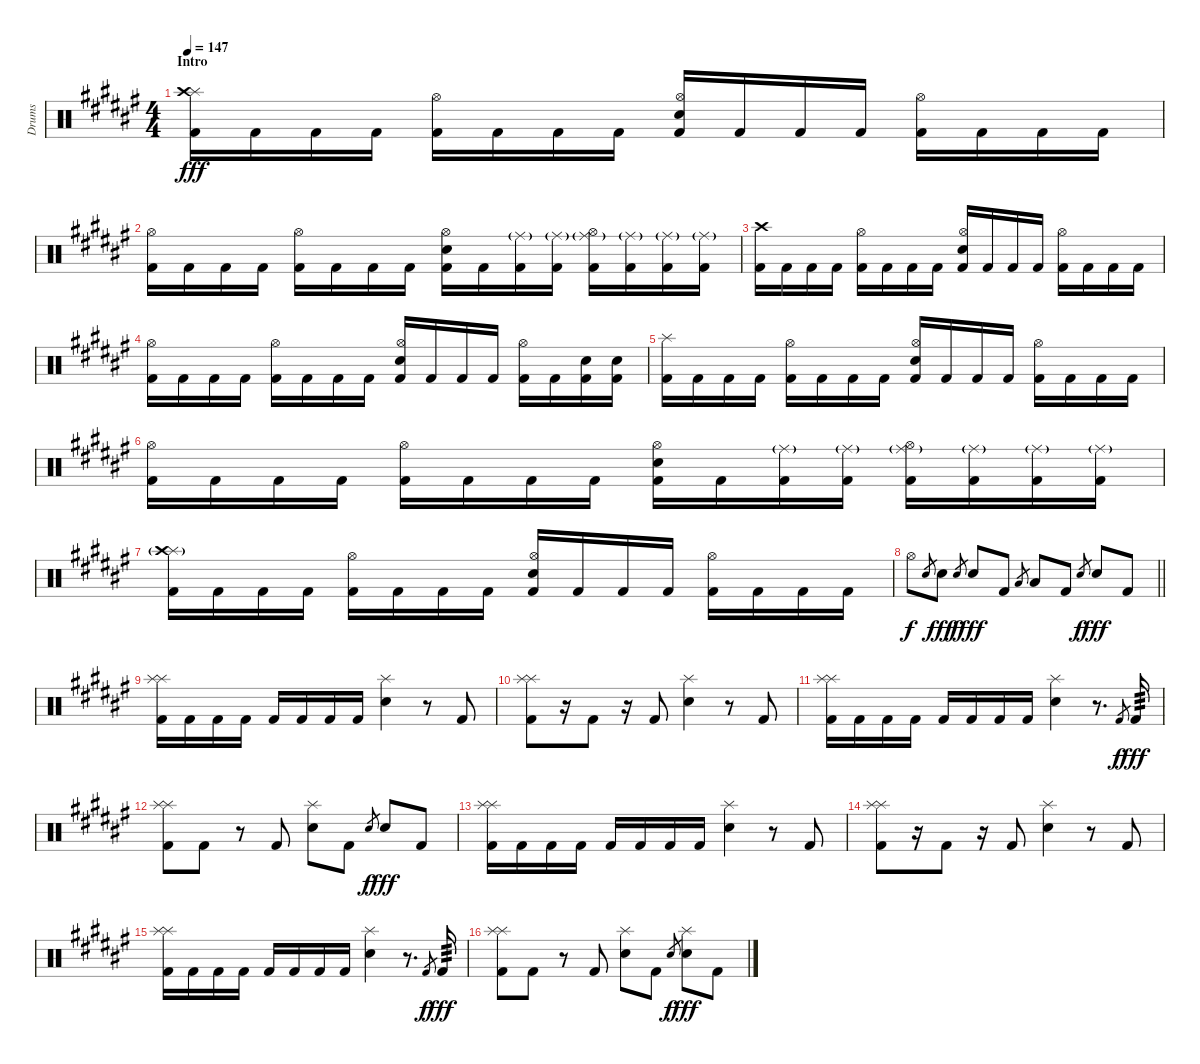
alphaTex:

\track ("Drums" "Drums") {instrument percussion}
\staff {score}
\articulation defaults
\ts (4 4)
\section ("" "Intro")
\tempo 147
\clef neutral
\ks d#minor
("Splash (hit)" "Crash high (hit)" "Kick (hit) 2").16{dy fff} "Kick (hit) 2".16 "Kick (hit) 2".16 "Kick (hit) 2".16 ("Hi-Hat (open)" "Kick (hit) 2").16 "Kick (hit) 2".16 "Kick (hit) 2".16 "Kick (hit) 2".16 ("Hi-Hat (open)" "Snare (hit) 2" "Kick (hit) 2").16 "Kick (hit) 2".16 "Kick (hit) 2".16 "Kick (hit) 2".16 ("Hi-Hat (open)" "Kick (hit) 2").16 "Kick (hit) 2".16 "Kick (hit) 2".16 "Kick (hit) 2".16 |
("Hi-Hat (open)" "Kick (hit) 2").16 "Kick (hit) 2".16 "Kick (hit) 2".16 "Kick (hit) 2".16 ("Hi-Hat (open)" "Kick (hit) 2").16 "Kick (hit) 2".16 "Kick (hit) 2".16 "Kick (hit) 2".16 ("Hi-Hat (open)" "Snare (hit) 2" "Kick (hit) 2").16 "Kick (hit) 2".16 ("Ride (middle)"{g} "Kick (hit) 2").16 ("Ride (middle)"{g} "Kick (hit) 2").16 ("Ride (middle)"{g} "Hi-Hat (open)" "Kick (hit) 2").16 ("Ride (middle)"{g} "Kick (hit) 2").16 ("Ride (middle)"{g} "Kick (hit) 2").16 ("Ride (middle)"{g} "Kick (hit) 2").16 |
("Crash high (hit)" "Kick (hit) 2").16 "Kick (hit) 2".16 "Kick (hit) 2".16 "Kick (hit) 2".16 ("Hi-Hat (open)" "Kick (hit) 2").16 "Kick (hit) 2".16 "Kick (hit) 2".16 "Kick (hit) 2".16 ("Hi-Hat (open)" "Snare (hit) 2" "Kick (hit) 2").16 "Kick (hit) 2".16 "Kick (hit) 2".16 "Kick (hit) 2".16 ("Hi-Hat (open)" "Kick (hit) 2").16 "Kick (hit) 2".16 "Kick (hit) 2".16 "Kick (hit) 2".16 |
("Hi-Hat (open)" "Kick (hit) 2").16 "Kick (hit) 2".16 "Kick (hit) 2".16 "Kick (hit) 2".16 ("Hi-Hat (open)" "Kick (hit) 2").16 "Kick (hit) 2".16 "Kick (hit) 2".16 "Kick (hit) 2".16 ("Hi-Hat (open)" "Snare (hit) 2" "Kick (hit) 2").16 "Kick (hit) 2".16 "Kick (hit) 2".16 "Kick (hit) 2".16 ("Hi-Hat (open)" "Kick (hit) 2").16 "Kick (hit) 2".16 ("Snare (hit) 2" "Kick (hit) 2").16 ("Snare (hit) 2" "Kick (hit) 2").16 |
("Splash (hit)" "Kick (hit) 2").16 "Kick (hit) 2".16 "Kick (hit) 2".16 "Kick (hit) 2".16 ("Hi-Hat (open)" "Kick (hit) 2").16 "Kick (hit) 2".16 "Kick (hit) 2".16 "Kick (hit) 2".16 ("Hi-Hat (open)" "Snare (hit) 2" "Kick (hit) 2").16 "Kick (hit) 2".16 "Kick (hit) 2".16 "Kick (hit) 2".16 ("Hi-Hat (open)" "Kick (hit) 2").16 "Kick (hit) 2".16 "Kick (hit) 2".16 "Kick (hit) 2".16 |
("Hi-Hat (open)" "Kick (hit) 2").16 "Kick (hit) 2".16 "Kick (hit) 2".16 "Kick (hit) 2".16 ("Hi-Hat (open)" "Kick (hit) 2").16 "Kick (hit) 2".16 "Kick (hit) 2".16 "Kick (hit) 2".16 ("Hi-Hat (open)" "Snare (hit) 2" "Kick (hit) 2").16 "Kick (hit) 2".16 ("Ride (middle)"{g} "Kick (hit) 2").16 ("Ride (middle)"{g} "Kick (hit) 2").16 ("Ride (middle)"{g} "Hi-Hat (open)" "Kick (hit) 2").16 ("Ride (middle)"{g} "Kick (hit) 2").16 ("Ride (middle)"{g} "Kick (hit) 2").16 ("Ride (middle)"{g} "Kick (hit) 2").16 |
("Splash (hit)"{g} "Crash high (hit)" "Kick (hit) 2").16 "Kick (hit) 2".16 "Kick (hit) 2".16 "Kick (hit) 2".16 ("Hi-Hat (open)" "Kick (hit) 2").16 "Kick (hit) 2".16 "Kick (hit) 2".16 "Kick (hit) 2".16 ("Hi-Hat (open)" "Snare (hit) 2" "Kick (hit) 2").16 "Kick (hit) 2".16 "Kick (hit) 2".16 "Kick (hit) 2".16 ("Hi-Hat (open)" "Kick (hit) 2").16 "Kick (hit) 2".16 "Kick (hit) 2".16 "Kick (hit) 2".16 |
\barLineRight lightlight "Hi-Hat (open)".8{dy f} "Snare (hit) 2".8{gr} "Snare (hit) 2".8{dy fff} "Snare (hit) 2".8{gr dy f} "Snare (hit) 2".8{dy fff} "Kick (hit) 2".8 "Low Tom (hit)".8{gr} "Low Tom (hit)".8 "Kick (hit) 2".8 "Snare (hit) 2".8{gr dy f} "Snare (hit) 2".8{dy fff} "Kick (hit) 2".8
|
\section ("" "")
("Splash (hit)" "Splash (hit)" "Kick (hit) 2").16 "Kick (hit) 2".16 "Kick (hit) 2".16 "Kick (hit) 2".16 "Kick (hit) 2".16 "Kick (hit) 2".16 "Kick (hit) 2".16 "Kick (hit) 2".16 ("Splash (hit)" "Snare (hit) 2").4 r.8 "Kick (hit) 2".8 |
("Splash (hit)" "Splash (hit)" "Kick (hit) 2").8 r.16 "Kick (hit) 2".8 r.16 "Kick (hit) 2".8 ("Splash (hit)" "Snare (hit) 2").4 r.8 "Kick (hit) 2".8 |
("Splash (hit)" "Splash (hit)" "Kick (hit) 2").16 "Kick (hit) 2".16 "Kick (hit) 2".16 "Kick (hit) 2".16 "Kick (hit) 2".16 "Kick (hit) 2".16 "Kick (hit) 2".16 "Kick (hit) 2".16 ("Splash (hit)" "Snare (hit) 2").4 r.8{d} "Kick (hit) 2".8{gr dy f} "Kick (hit) 2".16{tp 3 dy fff} |
("Splash (hit)" "Splash (hit)" "Kick (hit) 2").8 "Kick (hit) 2".8 r.8 "Kick (hit) 2".8 ("Splash (hit)" "Snare (hit) 2").8 "Kick (hit) 2".8 "Snare (hit) 2".8{gr dy f} "Snare (hit) 2".8{dy fff} "Kick (hit) 2".8 |
("Splash (hit)" "Splash (hit)" "Kick (hit) 2").16 "Kick (hit) 2".16 "Kick (hit) 2".16 "Kick (hit) 2".16 "Kick (hit) 2".16 "Kick (hit) 2".16 "Kick (hit) 2".16 "Kick (hit) 2".16 ("Splash (hit)" "Snare (hit) 2").4 r.8 "Kick (hit) 2".8 |
("Splash (hit)" "Splash (hit)" "Kick (hit) 2").8 r.16 "Kick (hit) 2".8 r.16 "Kick (hit) 2".8 ("Splash (hit)" "Snare (hit) 2").4 r.8 "Kick (hit) 2".8 |
("Splash (hit)" "Splash (hit)" "Kick (hit) 2").16 "Kick (hit) 2".16 "Kick (hit) 2".16 "Kick (hit) 2".16 "Kick (hit) 2".16 "Kick (hit) 2".16 "Kick (hit) 2".16 "Kick (hit) 2".16 ("Splash (hit)" "Snare (hit) 2").4 r.8{d} "Kick (hit) 2".8{gr dy f} "Kick (hit) 2".16{tp 3 dy fff} |
("Splash (hit)" "Splash (hit)" "Kick (hit) 2").8 "Kick (hit) 2".8 r.8 "Kick (hit) 2".8 ("Splash (hit)" "Snare (hit) 2").8 "Kick (hit) 2".8 "Snare (hit) 2".8{gr dy f} ("Splash (hit)" "Snare (hit) 2").8{dy fff} "Kick (hit) 2".8
